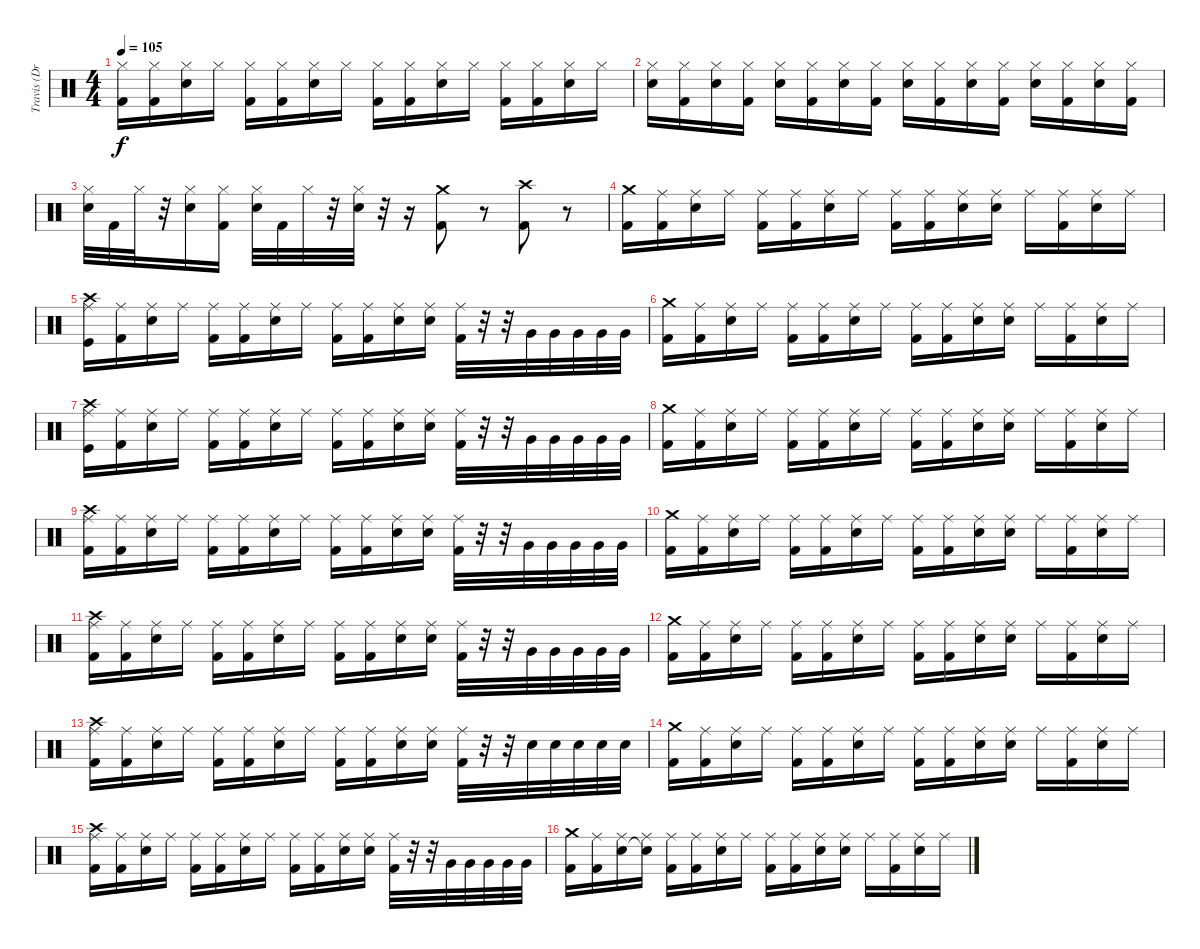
\track ("Travis (Drums)" "Travis (Dr") {instrument percussion}
\staff {score}
\articulation defaults
\ts (4 4)
\tempo 105
\clef neutral
\ks c
("Hi-Hat (closed)" "Kick (hit) 2").16{dy f} ("Hi-Hat (closed)" "Kick (hit) 2").16 ("Hi-Hat (closed)" "Electric Snare (hit)").16 "Hi-Hat (closed)".16 ("Hi-Hat (closed)" "Kick (hit) 2").16 ("Hi-Hat (closed)" "Kick (hit) 2").16 ("Hi-Hat (closed)" "Electric Snare (hit)").16 "Hi-Hat (closed)".16 ("Hi-Hat (closed)" "Kick (hit) 2").16 ("Hi-Hat (closed)" "Kick (hit) 2").16 ("Hi-Hat (closed)" "Electric Snare (hit)").16 "Hi-Hat (closed)".16 ("Hi-Hat (closed)" "Kick (hit) 2").16 ("Hi-Hat (closed)" "Kick (hit) 2").16 ("Hi-Hat (closed)" "Electric Snare (hit)").16 "Hi-Hat (closed)".16 |
("Hi-Hat (closed)" "Electric Snare (hit)").16 ("Hi-Hat (closed)" "Kick (hit) 2").16 ("Hi-Hat (closed)" "Electric Snare (hit)").16 ("Hi-Hat (closed)" "Kick (hit) 2").16 ("Hi-Hat (closed)" "Electric Snare (hit)").16 ("Hi-Hat (closed)" "Kick (hit) 2").16 ("Hi-Hat (closed)" "Electric Snare (hit)").16 ("Hi-Hat (closed)" "Kick (hit) 2").16 ("Hi-Hat (closed)" "Electric Snare (hit)").16 ("Hi-Hat (closed)" "Kick (hit) 2").16 ("Hi-Hat (closed)" "Electric Snare (hit)").16 ("Hi-Hat (closed)" "Kick (hit) 2").16 ("Hi-Hat (closed)" "Electric Snare (hit)").16 ("Hi-Hat (closed)" "Kick (hit) 2").16 ("Hi-Hat (closed)" "Electric Snare (hit)").16 ("Hi-Hat (closed)" "Kick (hit) 2").16 |
("Hi-Hat (closed)" "Electric Snare (hit)").32 "Kick (hit) 2".32 "Hi-Hat (closed)".32 r.32 ("Hi-Hat (closed)" "Electric Snare (hit)").16 ("Hi-Hat (closed)" "Kick (hit) 2").16 ("Hi-Hat (closed)" "Electric Snare (hit)").32 "Kick (hit) 2".32 "Hi-Hat (closed)".32 r.32 ("Hi-Hat (closed)" "Electric Snare (hit)").32 r.32 r.16 ("Crash medium (hit)" "Kick (hit) 2").8 r.8 ("Crash high (hit)" "Kick (hit) 2").8 r.8 |
("Kick (hit) 2" "Crash medium (hit)").16 ("Ride (middle)" "Kick (hit) 2").16 ("Ride (middle)" "Electric Snare (hit)").16 "Ride (middle)".16 ("Ride (middle)" "Kick (hit) 2").16 ("Ride (middle)" "Kick (hit) 2").16 ("Ride (middle)" "Electric Snare (hit)").16 "Ride (middle)".16 ("Ride (middle)" "Kick (hit) 2").16 ("Ride (middle)" "Kick (hit) 2").16 ("Ride (middle)" "Electric Snare (hit)").16 ("Ride (middle)" "Electric Snare (hit)").16 "Ride (middle)".16 ("Ride (middle)" "Kick (hit) 2").16 ("Ride (middle)" "Electric Snare (hit)").16 "Ride (middle)".16 |
("Ride (middle)" "Kick (hit)" "Crash high (hit)").16 ("Ride (middle)" "Kick (hit) 2").16 ("Ride (middle)" "Electric Snare (hit)").16 "Ride (middle)".16 ("Ride (middle)" "Kick (hit) 2").16 ("Ride (middle)" "Kick (hit) 2").16 ("Ride (middle)" "Electric Snare (hit)").16 "Ride (middle)".16 ("Ride (middle)" "Kick (hit) 2").16 ("Ride (middle)" "Kick (hit) 2").16 ("Ride (middle)" "Electric Snare (hit)").16 ("Ride (middle)" "Electric Snare (hit)").16 ("Ride (middle)" "Kick (hit) 2").32 r.32 r.32 "Very Low Tom (hit)".32 "Very Low Tom (hit)".32 "Very Low Tom (hit)".32 "Very Low Tom (hit)".32 "Very Low Tom (hit)".32 |
("Kick (hit) 2" "Crash medium (hit)").16 ("Ride (middle)" "Kick (hit) 2").16 ("Ride (middle)" "Electric Snare (hit)").16 "Ride (middle)".16 ("Ride (middle)" "Kick (hit) 2").16 ("Ride (middle)" "Kick (hit) 2").16 ("Ride (middle)" "Electric Snare (hit)").16 "Ride (middle)".16 ("Ride (middle)" "Kick (hit) 2").16 ("Ride (middle)" "Kick (hit) 2").16 ("Ride (middle)" "Electric Snare (hit)").16 ("Ride (middle)" "Electric Snare (hit)").16 "Ride (middle)".16 ("Ride (middle)" "Kick (hit) 2").16 ("Ride (middle)" "Electric Snare (hit)").16 "Ride (middle)".16 |
("Ride (middle)" "Kick (hit)" "Crash high (hit)").16 ("Ride (middle)" "Kick (hit) 2").16 ("Ride (middle)" "Electric Snare (hit)").16 "Ride (middle)".16 ("Ride (middle)" "Kick (hit) 2").16 ("Ride (middle)" "Kick (hit) 2").16 ("Ride (middle)" "Electric Snare (hit)").16 "Ride (middle)".16 ("Ride (middle)" "Kick (hit) 2").16 ("Ride (middle)" "Kick (hit) 2").16 ("Ride (middle)" "Electric Snare (hit)").16 ("Ride (middle)" "Electric Snare (hit)").16 ("Ride (middle)" "Kick (hit) 2").32 r.32 r.32 "Very Low Tom (hit)".32 "Very Low Tom (hit)".32 "Very Low Tom (hit)".32 "Very Low Tom (hit)".32 "Very Low Tom (hit)".32 |
("Kick (hit) 2" "Crash medium (hit)").16 ("Ride (middle)" "Kick (hit) 2").16 ("Ride (middle)" "Electric Snare (hit)").16 "Ride (middle)".16 ("Ride (middle)" "Kick (hit) 2").16 ("Ride (middle)" "Kick (hit) 2").16 ("Ride (middle)" "Electric Snare (hit)").16 "Ride (middle)".16 ("Ride (middle)" "Kick (hit) 2").16 ("Ride (middle)" "Kick (hit) 2").16 ("Ride (middle)" "Electric Snare (hit)").16 ("Ride (middle)" "Electric Snare (hit)").16 "Ride (middle)".16 ("Ride (middle)" "Kick (hit) 2").16 ("Ride (middle)" "Electric Snare (hit)").16 "Ride (middle)".16 |
("Ride (middle)" "Kick (hit) 2" "Crash high (hit)").16 ("Ride (middle)" "Kick (hit) 2").16 ("Ride (middle)" "Electric Snare (hit)").16 "Ride (middle)".16 ("Ride (middle)" "Kick (hit) 2").16 ("Ride (middle)" "Kick (hit) 2").16 ("Ride (middle)" "Electric Snare (hit)").16 "Ride (middle)".16 ("Ride (middle)" "Kick (hit) 2").16 ("Ride (middle)" "Kick (hit) 2").16 ("Ride (middle)" "Electric Snare (hit)").16 ("Ride (middle)" "Electric Snare (hit)").16 ("Ride (middle)" "Kick (hit) 2").32 r.32 r.32 "Very Low Tom (hit)".32 "Very Low Tom (hit)".32 "Very Low Tom (hit)".32 "Very Low Tom (hit)".32 "Very Low Tom (hit)".32 |
("Kick (hit) 2" "Crash medium (hit)").16 ("Ride (middle)" "Kick (hit) 2").16 ("Ride (middle)" "Electric Snare (hit)").16 "Ride (middle)".16 ("Ride (middle)" "Kick (hit) 2").16 ("Ride (middle)" "Kick (hit) 2").16 ("Ride (middle)" "Electric Snare (hit)").16 "Ride (middle)".16 ("Ride (middle)" "Kick (hit) 2").16 ("Ride (middle)" "Kick (hit) 2").16 ("Ride (middle)" "Electric Snare (hit)").16 ("Ride (middle)" "Electric Snare (hit)").16 "Ride (middle)".16 ("Ride (middle)" "Kick (hit) 2").16 ("Ride (middle)" "Electric Snare (hit)").16 "Ride (middle)".16 |
("Ride (middle)" "Kick (hit) 2" "Crash high (hit)").16 ("Ride (middle)" "Kick (hit) 2").16 ("Ride (middle)" "Electric Snare (hit)").16 "Ride (middle)".16 ("Ride (middle)" "Kick (hit) 2").16 ("Ride (middle)" "Kick (hit) 2").16 ("Ride (middle)" "Electric Snare (hit)").16 "Ride (middle)".16 ("Ride (middle)" "Kick (hit) 2").16 ("Ride (middle)" "Kick (hit) 2").16 ("Ride (middle)" "Electric Snare (hit)").16 ("Ride (middle)" "Electric Snare (hit)").16 ("Ride (middle)" "Kick (hit) 2").32 r.32 r.32 "Very Low Tom (hit)".32 "Very Low Tom (hit)".32 "Very Low Tom (hit)".32 "Very Low Tom (hit)".32 "Very Low Tom (hit)".32 |
("Kick (hit) 2" "Crash medium (hit)").16 ("Ride (middle)" "Kick (hit) 2").16 ("Ride (middle)" "Electric Snare (hit)").16 "Ride (middle)".16 ("Ride (middle)" "Kick (hit) 2").16 ("Ride (middle)" "Kick (hit) 2").16 ("Ride (middle)" "Electric Snare (hit)").16 "Ride (middle)".16 ("Ride (middle)" "Kick (hit) 2").16 ("Ride (middle)" "Kick (hit) 2").16 ("Ride (middle)" "Electric Snare (hit)").16 ("Ride (middle)" "Electric Snare (hit)").16 "Ride (middle)".16 ("Ride (middle)" "Kick (hit) 2").16 ("Ride (middle)" "Electric Snare (hit)").16 "Ride (middle)".16 |
("Ride (middle)" "Kick (hit) 2" "Crash high (hit)").16 ("Ride (middle)" "Kick (hit) 2").16 ("Ride (middle)" "Electric Snare (hit)").16 "Ride (middle)".16 ("Ride (middle)" "Kick (hit) 2").16 ("Ride (middle)" "Kick (hit) 2").16 ("Ride (middle)" "Electric Snare (hit)").16 "Ride (middle)".16 ("Ride (middle)" "Kick (hit) 2").16 ("Ride (middle)" "Kick (hit) 2").16 ("Ride (middle)" "Electric Snare (hit)").16 ("Ride (middle)" "Electric Snare (hit)").16 ("Ride (middle)" "Kick (hit) 2").32 r.32 r.32 "Electric Snare (hit)".32 "Electric Snare (hit)".32 "Electric Snare (hit)".32 "Electric Snare (hit)".32 "Electric Snare (hit)".32 |
("Kick (hit) 2" "Crash medium (hit)").16 ("Ride (middle)" "Kick (hit) 2").16 ("Ride (middle)" "Electric Snare (hit)").16 "Ride (middle)".16 ("Ride (middle)" "Kick (hit) 2").16 ("Ride (middle)" "Kick (hit) 2").16 ("Ride (middle)" "Electric Snare (hit)").16 "Ride (middle)".16 ("Ride (middle)" "Kick (hit) 2").16 ("Ride (middle)" "Kick (hit) 2").16 ("Ride (middle)" "Electric Snare (hit)").16 ("Ride (middle)" "Electric Snare (hit)").16 "Ride (middle)".16 ("Ride (middle)" "Kick (hit) 2").16 ("Ride (middle)" "Electric Snare (hit)").16 "Ride (middle)".16 |
("Ride (middle)" "Kick (hit) 2" "Crash high (hit)").16 ("Ride (middle)" "Kick (hit) 2").16 ("Ride (middle)" "Electric Snare (hit)").16 "Ride (middle)".16 ("Ride (middle)" "Kick (hit) 2").16 ("Ride (middle)" "Kick (hit) 2").16 ("Ride (middle)" "Electric Snare (hit)").16 "Ride (middle)".16 ("Ride (middle)" "Kick (hit) 2").16 ("Ride (middle)" "Kick (hit) 2").16 ("Ride (middle)" "Electric Snare (hit)").16 ("Ride (middle)" "Electric Snare (hit)").16 ("Ride (middle)" "Kick (hit) 2").32 r.32 r.32 "Very Low Tom (hit)".32 "Very Low Tom (hit)".32 "Very Low Tom (hit)".32 "Very Low Tom (hit)".32 "Very Low Tom (hit)".32 |
("Kick (hit) 2" "Crash medium (hit)").16 ("Ride (middle)" "Kick (hit) 2").16 ("Ride (middle)" "Electric Snare (hit)").16 ("Ride (middle)" "Snare (hit)"{t}).16 ("Ride (middle)" "Kick (hit) 2").16 ("Ride (middle)" "Kick (hit) 2").16 ("Ride (middle)" "Electric Snare (hit)").16 "Ride (middle)".16 ("Ride (middle)" "Kick (hit) 2").16 ("Ride (middle)" "Kick (hit) 2").16 ("Ride (middle)" "Electric Snare (hit)").16 ("Ride (middle)" "Electric Snare (hit)").16 "Ride (middle)".16 ("Ride (middle)" "Kick (hit) 2").16 ("Ride (middle)" "Electric Snare (hit)").16 "Ride (middle)".16
